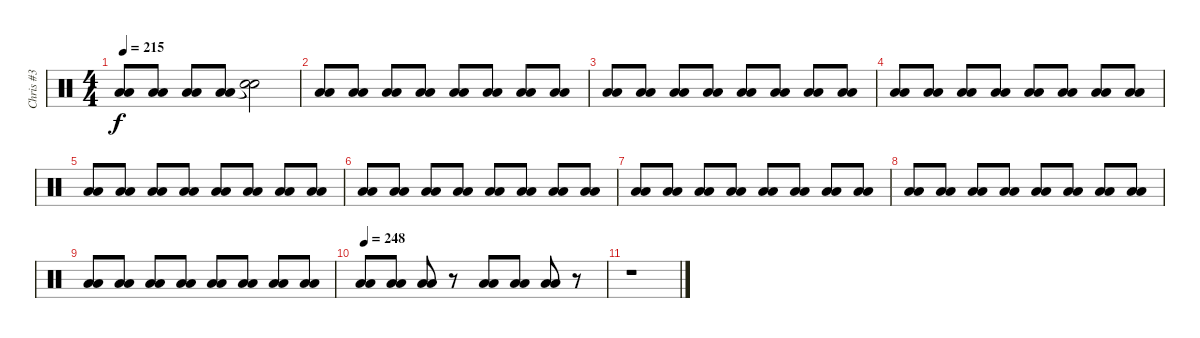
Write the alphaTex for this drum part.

\track ("Chris #3" "Chris #3") {instrument percussion}
\staff {score}
\articulation defaults
\ts (4 4)
\tempo 215
\clef neutral
\ks c
("Low Floor Tom (hit)" "Low Floor Tom (hit)").8{dy f} ("Low Floor Tom (hit)" "Low Floor Tom (hit)").8 ("Low Floor Tom (hit)" "Low Floor Tom (hit)").8 ("Low Floor Tom (hit)" "Low Floor Tom (hit)").8 ("Snare (hit)"{t} "Snare (hit)"{t}).2 |
("Low Floor Tom (hit)" "Low Floor Tom (hit)").8 ("Low Floor Tom (hit)" "Low Floor Tom (hit)").8 ("Low Floor Tom (hit)" "Low Floor Tom (hit)").8 ("Low Floor Tom (hit)" "Low Floor Tom (hit)").8 ("Low Floor Tom (hit)" "Low Floor Tom (hit)").8 ("Low Floor Tom (hit)" "Low Floor Tom (hit)").8 ("Low Floor Tom (hit)" "Low Floor Tom (hit)").8 ("Low Floor Tom (hit)" "Low Floor Tom (hit)").8 |
("Low Floor Tom (hit)" "Low Floor Tom (hit)").8 ("Low Floor Tom (hit)" "Low Floor Tom (hit)").8 ("Low Floor Tom (hit)" "Low Floor Tom (hit)").8 ("Low Floor Tom (hit)" "Low Floor Tom (hit)").8 ("Low Floor Tom (hit)" "Low Floor Tom (hit)").8 ("Low Floor Tom (hit)" "Low Floor Tom (hit)").8 ("Low Floor Tom (hit)" "Low Floor Tom (hit)").8 ("Low Floor Tom (hit)" "Low Floor Tom (hit)").8 |
("Low Floor Tom (hit)" "Low Floor Tom (hit)").8 ("Low Floor Tom (hit)" "Low Floor Tom (hit)").8 ("Low Floor Tom (hit)" "Low Floor Tom (hit)").8 ("Low Floor Tom (hit)" "Low Floor Tom (hit)").8 ("Low Floor Tom (hit)" "Low Floor Tom (hit)").8 ("Low Floor Tom (hit)" "Low Floor Tom (hit)").8 ("Low Floor Tom (hit)" "Low Floor Tom (hit)").8 ("Low Floor Tom (hit)" "Low Floor Tom (hit)").8 |
("Low Floor Tom (hit)" "Low Floor Tom (hit)").8 ("Low Floor Tom (hit)" "Low Floor Tom (hit)").8 ("Low Floor Tom (hit)" "Low Floor Tom (hit)").8 ("Low Floor Tom (hit)" "Low Floor Tom (hit)").8 ("Low Floor Tom (hit)" "Low Floor Tom (hit)").8 ("Low Floor Tom (hit)" "Low Floor Tom (hit)").8 ("Low Floor Tom (hit)" "Low Floor Tom (hit)").8 ("Low Floor Tom (hit)" "Low Floor Tom (hit)").8 |
("Low Floor Tom (hit)" "Low Floor Tom (hit)").8 ("Low Floor Tom (hit)" "Low Floor Tom (hit)").8 ("Low Floor Tom (hit)" "Low Floor Tom (hit)").8 ("Low Floor Tom (hit)" "Low Floor Tom (hit)").8 ("Low Floor Tom (hit)" "Low Floor Tom (hit)").8 ("Low Floor Tom (hit)" "Low Floor Tom (hit)").8 ("Low Floor Tom (hit)" "Low Floor Tom (hit)").8 ("Low Floor Tom (hit)" "Low Floor Tom (hit)").8 |
("Low Floor Tom (hit)" "Low Floor Tom (hit)").8 ("Low Floor Tom (hit)" "Low Floor Tom (hit)").8 ("Low Floor Tom (hit)" "Low Floor Tom (hit)").8 ("Low Floor Tom (hit)" "Low Floor Tom (hit)").8 ("Low Floor Tom (hit)" "Low Floor Tom (hit)").8 ("Low Floor Tom (hit)" "Low Floor Tom (hit)").8 ("Low Floor Tom (hit)" "Low Floor Tom (hit)").8 ("Low Floor Tom (hit)" "Low Floor Tom (hit)").8 |
("Low Floor Tom (hit)" "Low Floor Tom (hit)").8 ("Low Floor Tom (hit)" "Low Floor Tom (hit)").8 ("Low Floor Tom (hit)" "Low Floor Tom (hit)").8 ("Low Floor Tom (hit)" "Low Floor Tom (hit)").8 ("Low Floor Tom (hit)" "Low Floor Tom (hit)").8 ("Low Floor Tom (hit)" "Low Floor Tom (hit)").8 ("Low Floor Tom (hit)" "Low Floor Tom (hit)").8 ("Low Floor Tom (hit)" "Low Floor Tom (hit)").8 |
("Low Floor Tom (hit)" "Low Floor Tom (hit)").8 ("Low Floor Tom (hit)" "Low Floor Tom (hit)").8 ("Low Floor Tom (hit)" "Low Floor Tom (hit)").8 ("Low Floor Tom (hit)" "Low Floor Tom (hit)").8 ("Low Floor Tom (hit)" "Low Floor Tom (hit)").8 ("Low Floor Tom (hit)" "Low Floor Tom (hit)").8 ("Low Floor Tom (hit)" "Low Floor Tom (hit)").8 ("Low Floor Tom (hit)" "Low Floor Tom (hit)").8 |
\tempo 248
("Low Floor Tom (hit)" "Low Floor Tom (hit)").8 ("Low Floor Tom (hit)" "Low Floor Tom (hit)").8 ("Low Floor Tom (hit)" "Low Floor Tom (hit)").8 r.8 ("Low Floor Tom (hit)" "Low Floor Tom (hit)").8 ("Low Floor Tom (hit)" "Low Floor Tom (hit)").8 ("Low Floor Tom (hit)" "Low Floor Tom (hit)").8 r.8 |
r.1
